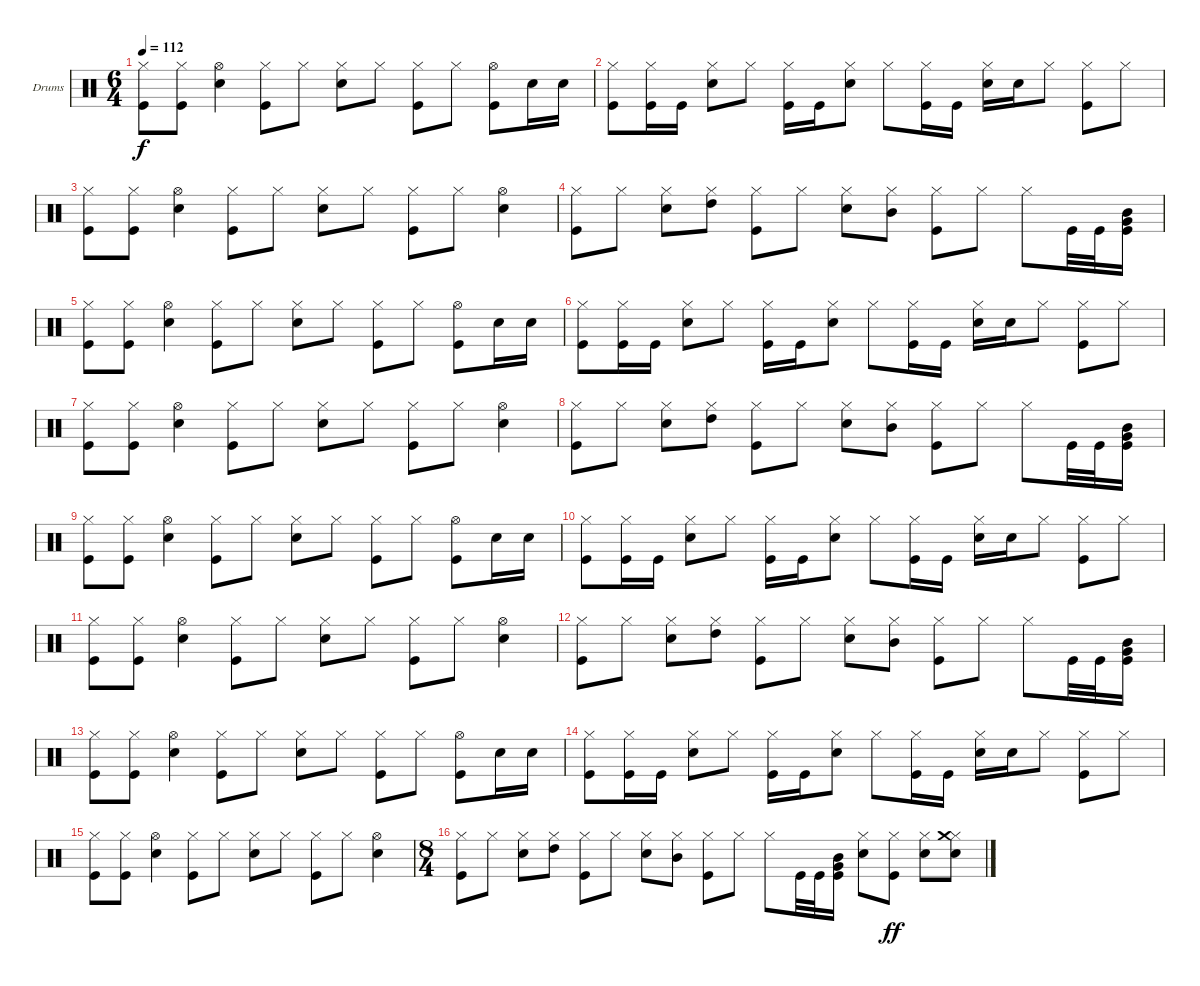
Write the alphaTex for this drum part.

\defaultSystemsLayout 4
\bracketExtendMode groupsimilarinstruments
\firstSystemTrackNameOrientation horizontal
\otherSystemsTrackNameOrientation horizontal
\track ("Drumkit" "Drums") {instrument percussion}
\staff {score}
\articulation defaults
\ts (6 4)
\tempo 112
\clef neutral
\scale
0.333333
\ks c
("Hi-Hat (closed)" "Kick (hit)").8{dy f} ("Hi-Hat (closed)" "Kick (hit)").8 ("Hi-Hat (open)" "Snare (hit) 2").4 ("Hi-Hat (closed)" "Kick (hit)").8 "Hi-Hat (closed)".8 ("Hi-Hat (closed)" "Snare (hit) 2").8 "Hi-Hat (closed)".8 ("Hi-Hat (closed)" "Kick (hit)").8 "Hi-Hat (closed)".8 ("Kick (hit)" "Hi-Hat (open)").8 "Snare (hit) 2".16 "Snare (hit) 2".16 |
\scale
0.333333 ("Kick (hit)" "Hi-Hat (closed)").8 ("Kick (hit)" "Hi-Hat (closed)").16 "Kick (hit)".16 ("Snare (hit) 2" "Hi-Hat (closed)").8 "Hi-Hat (closed)".8 ("Hi-Hat (closed)" "Kick (hit)").16 "Kick (hit)".16 ("Hi-Hat (closed)" "Snare (hit) 2").8 "Hi-Hat (closed)".8 ("Hi-Hat (closed)" "Kick (hit)").16 "Kick (hit)".16 ("Hi-Hat (closed)" "Snare (hit) 2").16 "Snare (hit) 2".16 "Hi-Hat (closed)".8 ("Hi-Hat (closed)" "Kick (hit)").8 "Hi-Hat (closed)".8 |
\scale
0.333333 ("Hi-Hat (closed)" "Kick (hit)").8 ("Hi-Hat (closed)" "Kick (hit)").8 ("Hi-Hat (open)" "Snare (hit) 2").4 ("Hi-Hat (closed)" "Kick (hit)").8 "Hi-Hat (closed)".8 ("Hi-Hat (closed)" "Snare (hit) 2").8 "Hi-Hat (closed)".8 ("Hi-Hat (closed)" "Kick (hit)").8 "Hi-Hat (closed)".8 ("Hi-Hat (open)" "Snare (hit) 2").4 |
\scale
0.333333 ("Kick (hit)" "Hi-Hat (closed)").8 "Hi-Hat (closed)".8 ("Hi-Hat (closed)" "Snare (hit) 2").8 ("Hi-Hat (closed)" "High Tom (hit)").8 ("Hi-Hat (closed)" "Kick (hit)").8 "Hi-Hat (closed)".8 ("Hi-Hat (closed)" "Snare (hit) 2").8 ("Hi-Hat (closed)" "Mid Tom (hit)").8 ("Hi-Hat (closed)" "Kick (hit)").8 "Hi-Hat (closed)".8 "Hi-Hat (closed)".8 "Kick (hit)".32 "Kick (hit)".32 ("Mid Tom (hit)" "Very Low Tom (hit)" "Kick (hit)").16 |
("Hi-Hat (closed)" "Kick (hit)").8 ("Hi-Hat (closed)" "Kick (hit)").8 ("Hi-Hat (open)" "Snare (hit) 2").4 ("Hi-Hat (closed)" "Kick (hit)").8 "Hi-Hat (closed)".8 ("Hi-Hat (closed)" "Snare (hit) 2").8 "Hi-Hat (closed)".8 ("Hi-Hat (closed)" "Kick (hit)").8 "Hi-Hat (closed)".8 ("Kick (hit)" "Hi-Hat (open)").8 "Snare (hit) 2".16 "Snare (hit) 2".16 |
("Kick (hit)" "Hi-Hat (closed)").8 ("Kick (hit)" "Hi-Hat (closed)").16 "Kick (hit)".16 ("Snare (hit) 2" "Hi-Hat (closed)").8 "Hi-Hat (closed)".8 ("Hi-Hat (closed)" "Kick (hit)").16 "Kick (hit)".16 ("Hi-Hat (closed)" "Snare (hit) 2").8 "Hi-Hat (closed)".8 ("Hi-Hat (closed)" "Kick (hit)").16 "Kick (hit)".16 ("Hi-Hat (closed)" "Snare (hit) 2").16 "Snare (hit) 2".16 "Hi-Hat (closed)".8 ("Hi-Hat (closed)" "Kick (hit)").8 "Hi-Hat (closed)".8 |
("Hi-Hat (closed)" "Kick (hit)").8 ("Hi-Hat (closed)" "Kick (hit)").8 ("Hi-Hat (open)" "Snare (hit) 2").4 ("Hi-Hat (closed)" "Kick (hit)").8 "Hi-Hat (closed)".8 ("Hi-Hat (closed)" "Snare (hit) 2").8 "Hi-Hat (closed)".8 ("Hi-Hat (closed)" "Kick (hit)").8 "Hi-Hat (closed)".8 ("Hi-Hat (open)" "Snare (hit) 2").4 |
("Kick (hit)" "Hi-Hat (closed)").8 "Hi-Hat (closed)".8 ("Hi-Hat (closed)" "Snare (hit) 2").8 ("Hi-Hat (closed)" "High Tom (hit)").8 ("Hi-Hat (closed)" "Kick (hit)").8 "Hi-Hat (closed)".8 ("Hi-Hat (closed)" "Snare (hit) 2").8 ("Hi-Hat (closed)" "Mid Tom (hit)").8 ("Hi-Hat (closed)" "Kick (hit)").8 "Hi-Hat (closed)".8 "Hi-Hat (closed)".8 "Kick (hit)".32 "Kick (hit)".32 ("Mid Tom (hit)" "Very Low Tom (hit)" "Kick (hit)").16 |
("Hi-Hat (closed)" "Kick (hit)").8 ("Hi-Hat (closed)" "Kick (hit)").8 ("Hi-Hat (open)" "Snare (hit) 2").4 ("Hi-Hat (closed)" "Kick (hit)").8 "Hi-Hat (closed)".8 ("Hi-Hat (closed)" "Snare (hit) 2").8 "Hi-Hat (closed)".8 ("Hi-Hat (closed)" "Kick (hit)").8 "Hi-Hat (closed)".8 ("Kick (hit)" "Hi-Hat (open)").8 "Snare (hit) 2".16 "Snare (hit) 2".16 |
("Kick (hit)" "Hi-Hat (closed)").8 ("Kick (hit)" "Hi-Hat (closed)").16 "Kick (hit)".16 ("Snare (hit) 2" "Hi-Hat (closed)").8 "Hi-Hat (closed)".8 ("Hi-Hat (closed)" "Kick (hit)").16 "Kick (hit)".16 ("Hi-Hat (closed)" "Snare (hit) 2").8 "Hi-Hat (closed)".8 ("Hi-Hat (closed)" "Kick (hit)").16 "Kick (hit)".16 ("Hi-Hat (closed)" "Snare (hit) 2").16 "Snare (hit) 2".16 "Hi-Hat (closed)".8 ("Hi-Hat (closed)" "Kick (hit)").8 "Hi-Hat (closed)".8 |
("Hi-Hat (closed)" "Kick (hit)").8 ("Hi-Hat (closed)" "Kick (hit)").8 ("Hi-Hat (open)" "Snare (hit) 2").4 ("Hi-Hat (closed)" "Kick (hit)").8 "Hi-Hat (closed)".8 ("Hi-Hat (closed)" "Snare (hit) 2").8 "Hi-Hat (closed)".8 ("Hi-Hat (closed)" "Kick (hit)").8 "Hi-Hat (closed)".8 ("Hi-Hat (open)" "Snare (hit) 2").4 |
("Kick (hit)" "Hi-Hat (closed)").8 "Hi-Hat (closed)".8 ("Hi-Hat (closed)" "Snare (hit) 2").8 ("Hi-Hat (closed)" "High Tom (hit)").8 ("Hi-Hat (closed)" "Kick (hit)").8 "Hi-Hat (closed)".8 ("Hi-Hat (closed)" "Snare (hit) 2").8 ("Hi-Hat (closed)" "Mid Tom (hit)").8 ("Hi-Hat (closed)" "Kick (hit)").8 "Hi-Hat (closed)".8 "Hi-Hat (closed)".8 "Kick (hit)".32 "Kick (hit)".32 ("Mid Tom (hit)" "Very Low Tom (hit)" "Kick (hit)").16 |
("Hi-Hat (closed)" "Kick (hit)").8 ("Hi-Hat (closed)" "Kick (hit)").8 ("Hi-Hat (open)" "Snare (hit) 2").4 ("Hi-Hat (closed)" "Kick (hit)").8 "Hi-Hat (closed)".8 ("Hi-Hat (closed)" "Snare (hit) 2").8 "Hi-Hat (closed)".8 ("Hi-Hat (closed)" "Kick (hit)").8 "Hi-Hat (closed)".8 ("Kick (hit)" "Hi-Hat (open)").8 "Snare (hit) 2".16 "Snare (hit) 2".16 |
("Kick (hit)" "Hi-Hat (closed)").8 ("Kick (hit)" "Hi-Hat (closed)").16 "Kick (hit)".16 ("Snare (hit) 2" "Hi-Hat (closed)").8 "Hi-Hat (closed)".8 ("Hi-Hat (closed)" "Kick (hit)").16 "Kick (hit)".16 ("Hi-Hat (closed)" "Snare (hit) 2").8 "Hi-Hat (closed)".8 ("Hi-Hat (closed)" "Kick (hit)").16 "Kick (hit)".16 ("Hi-Hat (closed)" "Snare (hit) 2").16 "Snare (hit) 2".16 "Hi-Hat (closed)".8 ("Hi-Hat (closed)" "Kick (hit)").8 "Hi-Hat (closed)".8 |
("Hi-Hat (closed)" "Kick (hit)").8 ("Hi-Hat (closed)" "Kick (hit)").8 ("Hi-Hat (open)" "Snare (hit) 2").4 ("Hi-Hat (closed)" "Kick (hit)").8 "Hi-Hat (closed)".8 ("Hi-Hat (closed)" "Snare (hit) 2").8 "Hi-Hat (closed)".8 ("Hi-Hat (closed)" "Kick (hit)").8 "Hi-Hat (closed)".8 ("Hi-Hat (open)" "Snare (hit) 2").4 |
\ts (8 4)
("Kick (hit)" "Hi-Hat (closed)").8 "Hi-Hat (closed)".8 ("Hi-Hat (closed)" "Snare (hit) 2").8 ("Hi-Hat (closed)" "High Tom (hit)").8 ("Hi-Hat (closed)" "Kick (hit)").8 "Hi-Hat (closed)".8 ("Hi-Hat (closed)" "Snare (hit) 2").8 ("Hi-Hat (closed)" "Mid Tom (hit)").8 ("Hi-Hat (closed)" "Kick (hit)").8 "Hi-Hat (closed)".8 "Hi-Hat (closed)".8 "Kick (hit)".32 "Kick (hit)".32 ("Mid Tom (hit)" "Very Low Tom (hit)" "Kick (hit)").16 ("Snare (hit) 2" "Hi-Hat (closed)").8 ("Kick (hit)" "Hi-Hat (closed)").8{dy ff} ("Snare (hit) 2" "Hi-Hat (closed)").8 ("Snare (hit) 2" "Hi-Hat (closed)" "Crash medium (hit)").8
